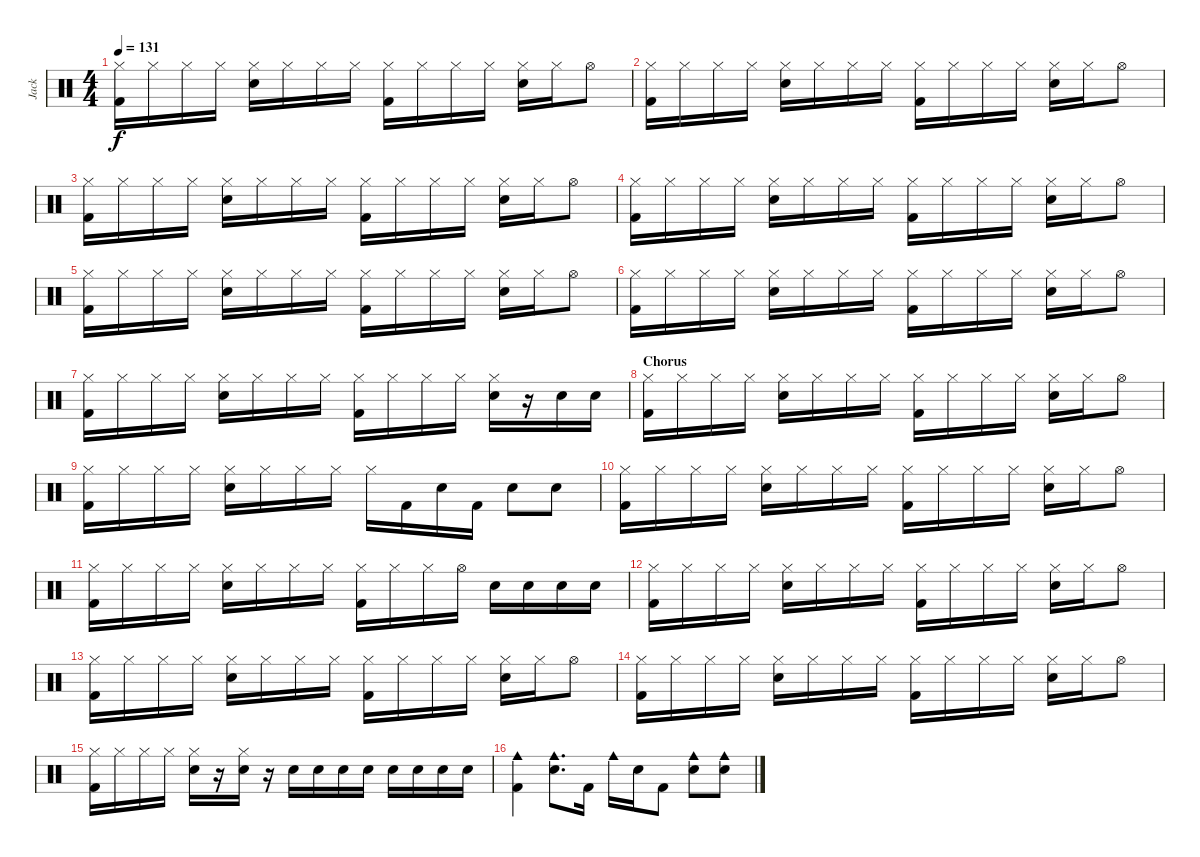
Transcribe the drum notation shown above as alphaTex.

\track ("Jack" "Jack") {instrument percussion}
\staff {score}
\articulation defaults
\ts (4 4)
\tempo 131
\clef neutral
\ks c
("Hi-Hat (closed)" "Kick (hit) 2").16{dy f} "Hi-Hat (closed)".16 "Hi-Hat (closed)".16 "Hi-Hat (closed)".16 ("Hi-Hat (closed)" "Electric Snare (hit)").16 "Hi-Hat (closed)".16 "Hi-Hat (closed)".16 "Hi-Hat (closed)".16 ("Hi-Hat (closed)" "Kick (hit) 2").16 "Hi-Hat (closed)".16 "Hi-Hat (closed)".16 "Hi-Hat (closed)".16 ("Hi-Hat (closed)" "Electric Snare (hit)").16 "Hi-Hat (closed)".16 "Hi-Hat (open)".8 |
("Hi-Hat (closed)" "Kick (hit) 2").16 "Hi-Hat (closed)".16 "Hi-Hat (closed)".16 "Hi-Hat (closed)".16 ("Hi-Hat (closed)" "Electric Snare (hit)").16 "Hi-Hat (closed)".16 "Hi-Hat (closed)".16 "Hi-Hat (closed)".16 ("Hi-Hat (closed)" "Kick (hit) 2").16 "Hi-Hat (closed)".16 "Hi-Hat (closed)".16 "Hi-Hat (closed)".16 ("Hi-Hat (closed)" "Electric Snare (hit)").16 "Hi-Hat (closed)".16 "Hi-Hat (open)".8 |
("Hi-Hat (closed)" "Kick (hit) 2").16 "Hi-Hat (closed)".16 "Hi-Hat (closed)".16 "Hi-Hat (closed)".16 ("Hi-Hat (closed)" "Electric Snare (hit)").16 "Hi-Hat (closed)".16 "Hi-Hat (closed)".16 "Hi-Hat (closed)".16 ("Hi-Hat (closed)" "Kick (hit) 2").16 "Hi-Hat (closed)".16 "Hi-Hat (closed)".16 "Hi-Hat (closed)".16 ("Hi-Hat (closed)" "Electric Snare (hit)").16 "Hi-Hat (closed)".16 "Hi-Hat (open)".8 |
("Hi-Hat (closed)" "Kick (hit) 2").16 "Hi-Hat (closed)".16 "Hi-Hat (closed)".16 "Hi-Hat (closed)".16 ("Hi-Hat (closed)" "Electric Snare (hit)").16 "Hi-Hat (closed)".16 "Hi-Hat (closed)".16 "Hi-Hat (closed)".16 ("Hi-Hat (closed)" "Kick (hit) 2").16 "Hi-Hat (closed)".16 "Hi-Hat (closed)".16 "Hi-Hat (closed)".16 ("Hi-Hat (closed)" "Electric Snare (hit)").16 "Hi-Hat (closed)".16 "Hi-Hat (open)".8 |
("Hi-Hat (closed)" "Kick (hit) 2").16 "Hi-Hat (closed)".16 "Hi-Hat (closed)".16 "Hi-Hat (closed)".16 ("Hi-Hat (closed)" "Electric Snare (hit)").16 "Hi-Hat (closed)".16 "Hi-Hat (closed)".16 "Hi-Hat (closed)".16 ("Hi-Hat (closed)" "Kick (hit) 2").16 "Hi-Hat (closed)".16 "Hi-Hat (closed)".16 "Hi-Hat (closed)".16 ("Hi-Hat (closed)" "Electric Snare (hit)").16 "Hi-Hat (closed)".16 "Hi-Hat (open)".8 |
("Hi-Hat (closed)" "Kick (hit) 2").16 "Hi-Hat (closed)".16 "Hi-Hat (closed)".16 "Hi-Hat (closed)".16 ("Hi-Hat (closed)" "Electric Snare (hit)").16 "Hi-Hat (closed)".16 "Hi-Hat (closed)".16 "Hi-Hat (closed)".16 ("Hi-Hat (closed)" "Kick (hit) 2").16 "Hi-Hat (closed)".16 "Hi-Hat (closed)".16 "Hi-Hat (closed)".16 ("Hi-Hat (closed)" "Electric Snare (hit)").16 "Hi-Hat (closed)".16 "Hi-Hat (open)".8 |
("Hi-Hat (closed)" "Kick (hit) 2").16 "Hi-Hat (closed)".16 "Hi-Hat (closed)".16 "Hi-Hat (closed)".16 ("Hi-Hat (closed)" "Electric Snare (hit)").16 "Hi-Hat (closed)".16 "Hi-Hat (closed)".16 "Hi-Hat (closed)".16 ("Hi-Hat (closed)" "Kick (hit) 2").16 "Hi-Hat (closed)".16 "Hi-Hat (closed)".16 "Hi-Hat (closed)".16 ("Hi-Hat (closed)" "Electric Snare (hit)").16 r.16 "Electric Snare (hit)".16 "Electric Snare (hit)".16 |
\section ("" "Chorus")
("Hi-Hat (closed)" "Kick (hit) 2").16 "Hi-Hat (closed)".16 "Hi-Hat (closed)".16 "Hi-Hat (closed)".16 ("Hi-Hat (closed)" "Electric Snare (hit)").16 "Hi-Hat (closed)".16 "Hi-Hat (closed)".16 "Hi-Hat (closed)".16 ("Hi-Hat (closed)" "Kick (hit) 2").16 "Hi-Hat (closed)".16 "Hi-Hat (closed)".16 "Hi-Hat (closed)".16 ("Hi-Hat (closed)" "Electric Snare (hit)").16 "Hi-Hat (closed)".16 "Hi-Hat (open)".8 |
("Hi-Hat (closed)" "Kick (hit) 2").16 "Hi-Hat (closed)".16 "Hi-Hat (closed)".16 "Hi-Hat (closed)".16 ("Hi-Hat (closed)" "Electric Snare (hit)").16 "Hi-Hat (closed)".16 "Hi-Hat (closed)".16 "Hi-Hat (closed)".16 "Hi-Hat (closed)".16 "Kick (hit) 2".16 "Electric Snare (hit)".16 "Kick (hit) 2".16 "Electric Snare (hit)".8 "Electric Snare (hit)".8 |
("Hi-Hat (closed)" "Kick (hit) 2").16 "Hi-Hat (closed)".16 "Hi-Hat (closed)".16 "Hi-Hat (closed)".16 ("Hi-Hat (closed)" "Electric Snare (hit)").16 "Hi-Hat (closed)".16 "Hi-Hat (closed)".16 "Hi-Hat (closed)".16 ("Hi-Hat (closed)" "Kick (hit) 2").16 "Hi-Hat (closed)".16 "Hi-Hat (closed)".16 "Hi-Hat (closed)".16 ("Hi-Hat (closed)" "Electric Snare (hit)").16 "Hi-Hat (closed)".16 "Hi-Hat (open)".8 |
("Hi-Hat (closed)" "Kick (hit) 2").16 "Hi-Hat (closed)".16 "Hi-Hat (closed)".16 "Hi-Hat (closed)".16 ("Hi-Hat (closed)" "Electric Snare (hit)").16 "Hi-Hat (closed)".16 "Hi-Hat (closed)".16 "Hi-Hat (closed)".16 ("Hi-Hat (closed)" "Kick (hit) 2").16 "Hi-Hat (closed)".16 "Hi-Hat (closed)".16 "Hi-Hat (open)".16 "Electric Snare (hit)".16 "Electric Snare (hit)".16 "Electric Snare (hit)".16 "Electric Snare (hit)".16 |
("Hi-Hat (closed)" "Kick (hit) 2").16 "Hi-Hat (closed)".16 "Hi-Hat (closed)".16 "Hi-Hat (closed)".16 ("Hi-Hat (closed)" "Electric Snare (hit)").16 "Hi-Hat (closed)".16 "Hi-Hat (closed)".16 "Hi-Hat (closed)".16 ("Hi-Hat (closed)" "Kick (hit) 2").16 "Hi-Hat (closed)".16 "Hi-Hat (closed)".16 "Hi-Hat (closed)".16 ("Hi-Hat (closed)" "Electric Snare (hit)").16 "Hi-Hat (closed)".16 "Hi-Hat (open)".8 |
("Hi-Hat (closed)" "Kick (hit) 2").16 "Hi-Hat (closed)".16 "Hi-Hat (closed)".16 "Hi-Hat (closed)".16 ("Hi-Hat (closed)" "Electric Snare (hit)").16 "Hi-Hat (closed)".16 "Hi-Hat (closed)".16 "Hi-Hat (closed)".16 ("Hi-Hat (closed)" "Kick (hit) 2").16 "Hi-Hat (closed)".16 "Hi-Hat (closed)".16 "Hi-Hat (closed)".16 ("Hi-Hat (closed)" "Electric Snare (hit)").16 "Hi-Hat (closed)".16 "Hi-Hat (open)".8 |
("Hi-Hat (closed)" "Kick (hit) 2").16 "Hi-Hat (closed)".16 "Hi-Hat (closed)".16 "Hi-Hat (closed)".16 ("Hi-Hat (closed)" "Electric Snare (hit)").16 "Hi-Hat (closed)".16 "Hi-Hat (closed)".16 "Hi-Hat (closed)".16 ("Hi-Hat (closed)" "Kick (hit) 2").16 "Hi-Hat (closed)".16 "Hi-Hat (closed)".16 "Hi-Hat (closed)".16 ("Hi-Hat (closed)" "Electric Snare (hit)").16 "Hi-Hat (closed)".16 "Hi-Hat (open)".8 |
("Hi-Hat (closed)" "Kick (hit) 2").16 "Hi-Hat (closed)".16 "Hi-Hat (closed)".16 "Hi-Hat (closed)".16 ("Hi-Hat (closed)" "Electric Snare (hit)").16 r.16 ("Hi-Hat (closed)" "Electric Snare (hit)").16 r.16 "Electric Snare (hit)".16 "Electric Snare (hit)".16 "Electric Snare (hit)".16 "Electric Snare (hit)".16 "Electric Snare (hit)".16 "Electric Snare (hit)".16 "Electric Snare (hit)".16 "Electric Snare (hit)".16 |
("Kick (hit) 2" "Cowbell medium (hit)").4 ("Electric Snare (hit)" "Cowbell medium (hit)").8{d} "Kick (hit) 2".16 "Cowbell medium (hit)".16 "Electric Snare (hit)".16 "Kick (hit) 2".8 ("Electric Snare (hit)" "Cowbell medium (hit)").8 ("Electric Snare (hit)" "Cowbell medium (hit)").8
